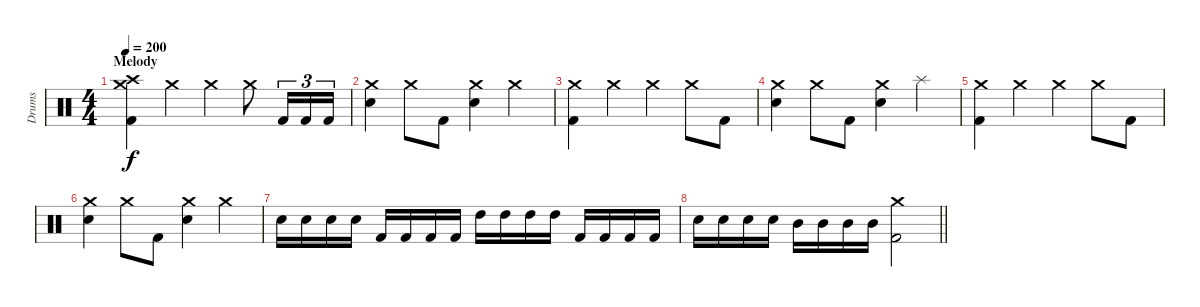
\track ("Drums" "Drums") {instrument percussion}
\staff {score}
\articulation defaults
\ts (4 4)
\section ("" "Melody")
\tempo 200
\clef neutral
\ks c
("Crash medium (hit)" "Crash high (hit)" "Kick (hit) 2").4{dy f} "Crash medium (hit)".4 "Crash medium (hit)".4 "Crash medium (hit)".8 "Kick (hit) 2".16{tu (3 2)} "Kick (hit) 2".16{tu (3 2)} "Kick (hit) 2".16{tu (3 2)} |
("Crash medium (hit)" "Electric Snare (hit)").4 "Crash medium (hit)".8 "Kick (hit) 2".8 ("Crash medium (hit)" "Electric Snare (hit)").4 "Crash medium (hit)".4 |
("Crash medium (hit)" "Kick (hit) 2").4 "Crash medium (hit)".4 "Crash medium (hit)".4 "Crash medium (hit)".8 "Kick (hit) 2".8 |
("Crash medium (hit)" "Electric Snare (hit)").4 "Crash medium (hit)".8 "Kick (hit) 2".8 ("Crash medium (hit)" "Electric Snare (hit)").4 "Splash (hit)".4 |
("Crash medium (hit)" "Kick (hit) 2").4 "Crash medium (hit)".4 "Crash medium (hit)".4 "Crash medium (hit)".8 "Kick (hit) 2".8 |
("Crash medium (hit)" "Electric Snare (hit)").4 "Crash medium (hit)".8 "Kick (hit) 2".8 ("Crash medium (hit)" "Electric Snare (hit)").4 "Crash medium (hit)".4 |
"Electric Snare (hit)".16 "Electric Snare (hit)".16 "Electric Snare (hit)".16 "Electric Snare (hit)".16 "Kick (hit) 2".16 "Kick (hit) 2".16 "Kick (hit) 2".16 "Kick (hit) 2".16 "High Tom (hit)".16 "High Tom (hit)".16 "High Tom (hit)".16 "High Tom (hit)".16 "Kick (hit) 2".16 "Kick (hit) 2".16 "Kick (hit) 2".16 "Kick (hit) 2".16 |
\barLineRight lightlight "Electric Snare (hit)".16 "Electric Snare (hit)".16 "Electric Snare (hit)".16 "Electric Snare (hit)".16 "Mid Tom (hit)".16 "Mid Tom (hit)".16 "Mid Tom (hit)".16 "Mid Tom (hit)".16
("Crash medium (hit)" "Kick (hit) 2").2
